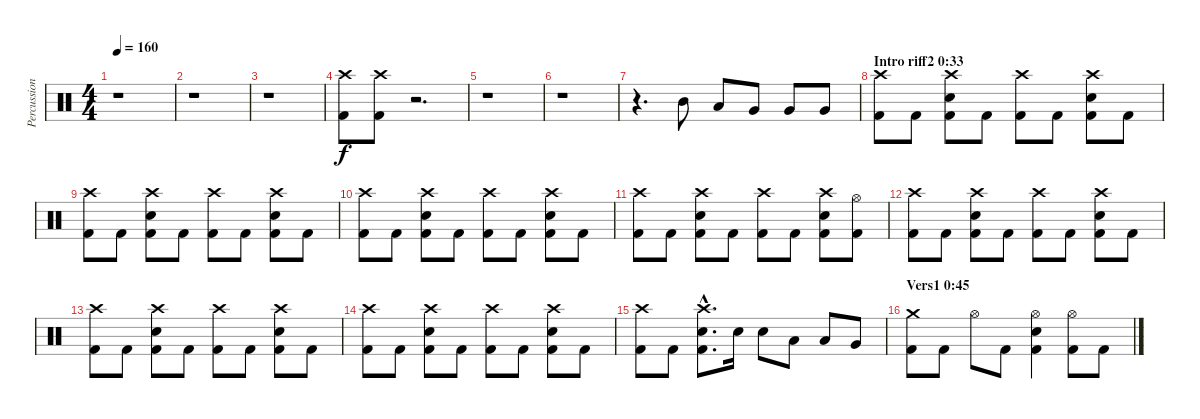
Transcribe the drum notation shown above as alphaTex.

\track ("Percussion" "Percussion") {instrument percussion}
\staff {score}
\articulation defaults
\ts (4 4)
\tempo 160
\clef neutral
\ks c
r.1{dy f} |
r.1 |
r.1 |
("Crash high (hit)" "Kick (hit) 2").8{volume 13} ("Crash high (hit)" "Kick (hit) 2").8 r.2{d volume 0} |
r.1 |
r.1 |
r.4{d} "Mid Tom (hit)".8{volume 16} "Low Tom (hit)".8 "Very Low Tom (hit)".8 "Very Low Tom (hit)".8 "Very Low Tom (hit)".8 |
\section ("" "Intro riff2 0:33")
("Crash high (hit)" "Kick (hit) 2").8 "Kick (hit) 2".8 ("Crash high (hit)" "Snare (hit) 2" "Kick (hit) 2").8 "Kick (hit) 2".8 ("Crash high (hit)" "Kick (hit) 2").8 "Kick (hit) 2".8 ("Crash high (hit)" "Snare (hit) 2" "Kick (hit) 2").8 "Kick (hit) 2".8 |
("Crash high (hit)" "Kick (hit) 2").8 "Kick (hit) 2".8 ("Crash high (hit)" "Snare (hit) 2" "Kick (hit) 2").8 "Kick (hit) 2".8 ("Crash high (hit)" "Kick (hit) 2").8 "Kick (hit) 2".8 ("Crash high (hit)" "Snare (hit) 2" "Kick (hit) 2").8 "Kick (hit) 2".8 |
("Crash high (hit)" "Kick (hit) 2").8 "Kick (hit) 2".8 ("Crash high (hit)" "Snare (hit) 2" "Kick (hit) 2").8 "Kick (hit) 2".8 ("Crash high (hit)" "Kick (hit) 2").8 "Kick (hit) 2".8 ("Crash high (hit)" "Snare (hit) 2" "Kick (hit) 2").8 "Kick (hit) 2".8 |
("Crash high (hit)" "Kick (hit) 2").8 "Kick (hit) 2".8 ("Crash high (hit)" "Snare (hit) 2" "Kick (hit) 2").8 "Kick (hit) 2".8 ("Crash high (hit)" "Kick (hit) 2").8 "Kick (hit) 2".8 ("Crash high (hit)" "Snare (hit) 2" "Kick (hit) 2").8 ("Hi-Hat (open)" "Kick (hit) 2").8 |
("Crash high (hit)" "Kick (hit) 2").8 "Kick (hit) 2".8 ("Crash high (hit)" "Snare (hit) 2" "Kick (hit) 2").8 "Kick (hit) 2".8 ("Crash high (hit)" "Kick (hit) 2").8 "Kick (hit) 2".8 ("Crash high (hit)" "Snare (hit) 2" "Kick (hit) 2").8 "Kick (hit) 2".8 |
("Crash high (hit)" "Kick (hit) 2").8 "Kick (hit) 2".8 ("Crash high (hit)" "Snare (hit) 2" "Kick (hit) 2").8 "Kick (hit) 2".8 ("Crash high (hit)" "Kick (hit) 2").8 "Kick (hit) 2".8 ("Crash high (hit)" "Snare (hit) 2" "Kick (hit) 2").8 "Kick (hit) 2".8 |
("Crash high (hit)" "Kick (hit) 2").8 "Kick (hit) 2".8 ("Crash high (hit)" "Snare (hit) 2" "Kick (hit) 2").8 "Kick (hit) 2".8 ("Crash high (hit)" "Kick (hit) 2").8 "Kick (hit) 2".8 ("Crash high (hit)" "Snare (hit) 2" "Kick (hit) 2").8 "Kick (hit) 2".8 |
("Crash high (hit)" "Kick (hit) 2").8 "Kick (hit) 2".8 ("Crash high (hit)"{hac} "Snare (hit) 2"{hac} "Kick (hit) 2"{hac}).8{d} "Snare (hit) 2".16 "Snare (hit) 2".8 "Low Tom (hit)".8 "Low Tom (hit)".8 "Very Low Tom (hit)".8 |
\section ("" "Vers1 0:45")
("Crash medium (hit)" "Kick (hit) 2").8 "Kick (hit) 2".8 "Hi-Hat (open)".8 "Kick (hit) 2".8 ("Hi-Hat (open)" "Snare (hit) 2" "Kick (hit) 2").4 ("Hi-Hat (open)" "Kick (hit) 2").8 "Kick (hit) 2".8
